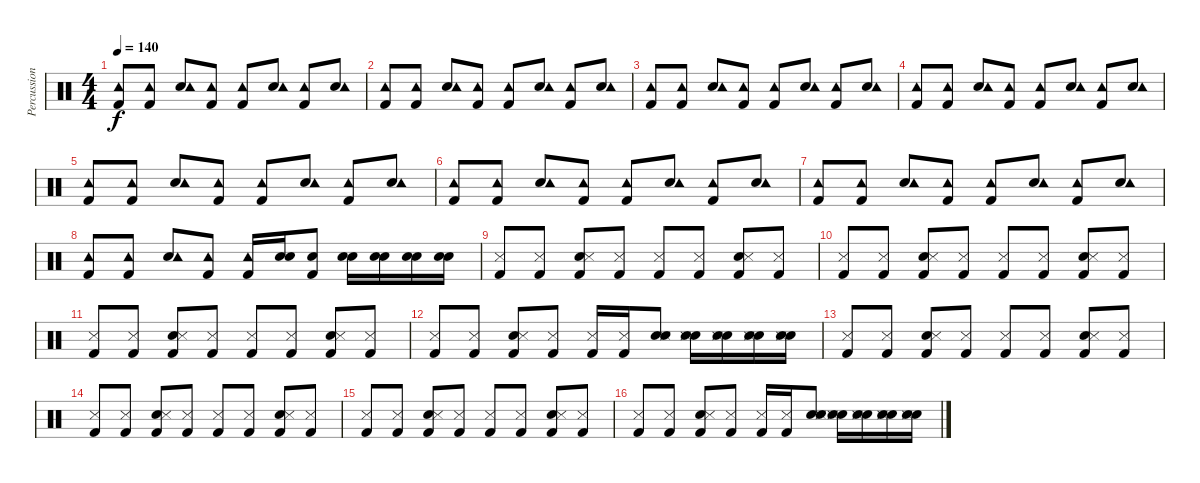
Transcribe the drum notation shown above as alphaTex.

\track ("Percussion" "Percussion") {instrument percussion}
\staff {score}
\articulation defaults
\ts (4 4)
\tempo 140
\clef neutral
\ks c
("Kick (hit) 2" "Tambourine (hit)").8{dy f} ("Kick (hit) 2" "Tambourine (hit)").8 ("Snare (hit) 2" "Tambourine (hit)").8 ("Kick (hit) 2" "Tambourine (hit)").8 ("Kick (hit) 2" "Tambourine (hit)").8 ("Snare (hit) 2" "Tambourine (hit)").8 ("Kick (hit) 2" "Tambourine (hit)").8 ("Snare (hit) 2" "Tambourine (hit)").8 |
("Kick (hit) 2" "Tambourine (hit)").8 ("Kick (hit) 2" "Tambourine (hit)").8 ("Snare (hit) 2" "Tambourine (hit)").8 ("Kick (hit) 2" "Tambourine (hit)").8 ("Kick (hit) 2" "Tambourine (hit)").8 ("Snare (hit) 2" "Tambourine (hit)").8 ("Kick (hit) 2" "Tambourine (hit)").8 ("Snare (hit) 2" "Tambourine (hit)").8 |
("Kick (hit) 2" "Tambourine (hit)").8 ("Kick (hit) 2" "Tambourine (hit)").8 ("Snare (hit) 2" "Tambourine (hit)").8 ("Kick (hit) 2" "Tambourine (hit)").8 ("Kick (hit) 2" "Tambourine (hit)").8 ("Snare (hit) 2" "Tambourine (hit)").8 ("Kick (hit) 2" "Tambourine (hit)").8 ("Snare (hit) 2" "Tambourine (hit)").8 |
("Kick (hit) 2" "Tambourine (hit)").8 ("Kick (hit) 2" "Tambourine (hit)").8 ("Snare (hit) 2" "Tambourine (hit)").8 ("Kick (hit) 2" "Tambourine (hit)").8 ("Kick (hit) 2" "Tambourine (hit)").8 ("Snare (hit) 2" "Tambourine (hit)").8 ("Kick (hit) 2" "Tambourine (hit)").8 ("Snare (hit) 2" "Tambourine (hit)").8 |
("Kick (hit) 2" "Tambourine (hit)").8 ("Kick (hit) 2" "Tambourine (hit)").8 ("Snare (hit) 2" "Tambourine (hit)").8 ("Kick (hit) 2" "Tambourine (hit)").8 ("Kick (hit) 2" "Tambourine (hit)").8 ("Snare (hit) 2" "Tambourine (hit)").8 ("Kick (hit) 2" "Tambourine (hit)").8 ("Snare (hit) 2" "Tambourine (hit)").8 |
("Kick (hit) 2" "Tambourine (hit)").8 ("Kick (hit) 2" "Tambourine (hit)").8 ("Snare (hit) 2" "Tambourine (hit)").8 ("Kick (hit) 2" "Tambourine (hit)").8 ("Kick (hit) 2" "Tambourine (hit)").8 ("Snare (hit) 2" "Tambourine (hit)").8 ("Kick (hit) 2" "Tambourine (hit)").8 ("Snare (hit) 2" "Tambourine (hit)").8 |
("Kick (hit) 2" "Tambourine (hit)").8 ("Kick (hit) 2" "Tambourine (hit)").8 ("Snare (hit) 2" "Tambourine (hit)").8 ("Kick (hit) 2" "Tambourine (hit)").8 ("Kick (hit) 2" "Tambourine (hit)").8 ("Snare (hit) 2" "Tambourine (hit)").8 ("Kick (hit) 2" "Tambourine (hit)").8 ("Snare (hit) 2" "Tambourine (hit)").8 |
("Kick (hit) 2" "Tambourine (hit)").8 ("Kick (hit) 2" "Tambourine (hit)").8 ("Snare (hit) 2" "Tambourine (hit)").8 ("Kick (hit) 2" "Tambourine (hit)").8 ("Kick (hit) 2" "Tambourine (hit)").16 ("Electric Snare (hit)" "Snare (hit) 2").16 ("Electric Snare (hit)" "Kick (hit) 2").8 ("Electric Snare (hit)" "Snare (hit) 2").16 ("Electric Snare (hit)" "Snare (hit) 2").16 ("Electric Snare (hit)" "Snare (hit) 2").16 ("Electric Snare (hit)" "Snare (hit) 2").16 |
("Kick (hit) 2" "Snare (side stick) 3").8 ("Kick (hit) 2" "Snare (side stick) 3").8 ("Kick (hit) 2" "Snare (hit) 2" "Snare (side stick) 3").8 ("Kick (hit) 2" "Snare (side stick) 3").8 ("Kick (hit) 2" "Snare (side stick) 3").8 ("Kick (hit) 2" "Snare (side stick) 3").8 ("Kick (hit) 2" "Snare (hit) 2" "Snare (side stick) 3").8 ("Kick (hit) 2" "Snare (side stick) 3").8 |
("Kick (hit) 2" "Snare (side stick) 3").8 ("Kick (hit) 2" "Snare (side stick) 3").8 ("Kick (hit) 2" "Snare (hit) 2" "Snare (side stick) 3").8 ("Kick (hit) 2" "Snare (side stick) 3").8 ("Kick (hit) 2" "Snare (side stick) 3").8 ("Kick (hit) 2" "Snare (side stick) 3").8 ("Kick (hit) 2" "Snare (hit) 2" "Snare (side stick) 3").8 ("Kick (hit) 2" "Snare (side stick) 3").8 |
("Kick (hit) 2" "Snare (side stick) 3").8 ("Kick (hit) 2" "Snare (side stick) 3").8 ("Kick (hit) 2" "Snare (hit) 2" "Snare (side stick) 3").8 ("Kick (hit) 2" "Snare (side stick) 3").8 ("Kick (hit) 2" "Snare (side stick) 3").8 ("Kick (hit) 2" "Snare (side stick) 3").8 ("Kick (hit) 2" "Snare (hit) 2" "Snare (side stick) 3").8 ("Kick (hit) 2" "Snare (side stick) 3").8 |
("Kick (hit) 2" "Snare (side stick) 3").8 ("Kick (hit) 2" "Snare (side stick) 3").8 ("Kick (hit) 2" "Snare (hit) 2" "Snare (side stick) 3").8 ("Kick (hit) 2" "Snare (side stick) 3").8 ("Kick (hit) 2" "Snare (side stick) 3").16 ("Kick (hit) 2" "Snare (side stick) 3").16 ("Snare (hit) 2" "Snare (hit) 2" "Snare (side stick) 3").8 ("Snare (hit) 2" "Snare (hit) 2" "Snare (side stick) 3").16 ("Snare (hit) 2" "Snare (hit) 2" "Snare (side stick) 3").16 ("Snare (hit) 2" "Snare (hit) 2" "Snare (side stick) 3").16 ("Snare (hit) 2" "Snare (hit) 2" "Snare (side stick) 3").16 |
("Kick (hit) 2" "Snare (side stick) 3").8 ("Kick (hit) 2" "Snare (side stick) 3").8 ("Kick (hit) 2" "Snare (hit) 2" "Snare (side stick) 3").8 ("Kick (hit) 2" "Snare (side stick) 3").8 ("Kick (hit) 2" "Snare (side stick) 3").8 ("Kick (hit) 2" "Snare (side stick) 3").8 ("Kick (hit) 2" "Snare (hit) 2" "Snare (side stick) 3").8 ("Kick (hit) 2" "Snare (side stick) 3").8 |
("Kick (hit) 2" "Snare (side stick) 3").8 ("Kick (hit) 2" "Snare (side stick) 3").8 ("Kick (hit) 2" "Snare (hit) 2" "Snare (side stick) 3").8 ("Kick (hit) 2" "Snare (side stick) 3").8 ("Kick (hit) 2" "Snare (side stick) 3").8 ("Kick (hit) 2" "Snare (side stick) 3").8 ("Kick (hit) 2" "Snare (hit) 2" "Snare (side stick) 3").8 ("Kick (hit) 2" "Snare (side stick) 3").8 |
("Kick (hit) 2" "Snare (side stick) 3").8 ("Kick (hit) 2" "Snare (side stick) 3").8 ("Kick (hit) 2" "Snare (hit) 2" "Snare (side stick) 3").8 ("Kick (hit) 2" "Snare (side stick) 3").8 ("Kick (hit) 2" "Snare (side stick) 3").8 ("Kick (hit) 2" "Snare (side stick) 3").8 ("Kick (hit) 2" "Snare (hit) 2" "Snare (side stick) 3").8 ("Kick (hit) 2" "Snare (side stick) 3").8 |
("Kick (hit) 2" "Snare (side stick) 3").8 ("Kick (hit) 2" "Snare (side stick) 3").8 ("Kick (hit) 2" "Snare (hit) 2" "Snare (side stick) 3").8 ("Kick (hit) 2" "Snare (side stick) 3").8 ("Kick (hit) 2" "Snare (side stick) 3").16 ("Kick (hit) 2" "Snare (side stick) 3").16 ("Snare (hit) 2" "Snare (hit) 2" "Snare (side stick) 3").8 ("Snare (hit) 2" "Snare (hit) 2" "Snare (side stick) 3").16 ("Snare (hit) 2" "Snare (hit) 2" "Snare (side stick) 3").16 ("Snare (hit) 2" "Snare (hit) 2" "Snare (side stick) 3").16 ("Snare (hit) 2" "Snare (hit) 2" "Snare (side stick) 3").16
